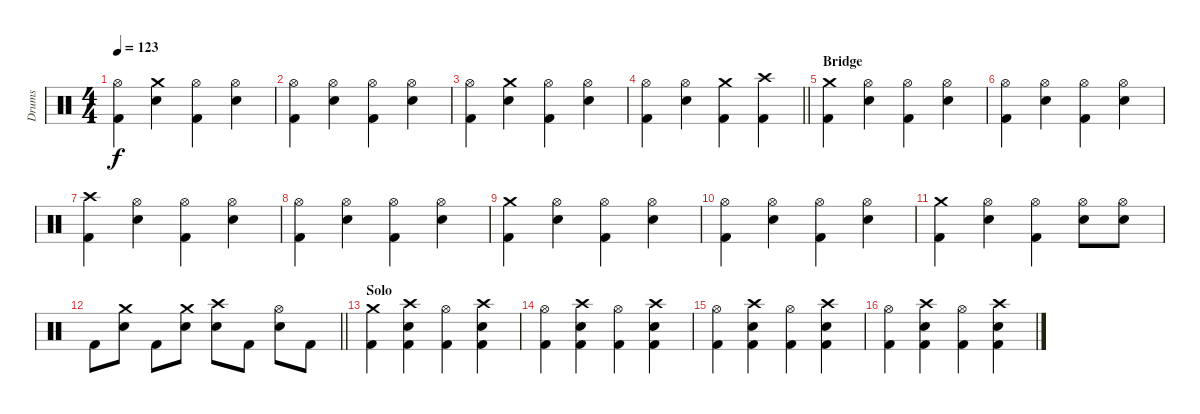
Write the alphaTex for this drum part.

\track ("Drums" "Drums") {instrument percussion}
\staff {score}
\articulation defaults
\ts (4 4)
\tempo 123
\clef neutral
\ks c
("Hi-Hat (open)" "Kick (hit) 2").4{dy f} ("Crash medium (hit)" "Electric Snare (hit)").4 ("Hi-Hat (open)" "Kick (hit) 2").4 ("Hi-Hat (open)" "Electric Snare (hit)").4 |
("Hi-Hat (open)" "Kick (hit) 2").4 ("Hi-Hat (open)" "Electric Snare (hit)").4 ("Hi-Hat (open)" "Kick (hit) 2").4 ("Hi-Hat (open)" "Electric Snare (hit)").4 |
("Hi-Hat (open)" "Kick (hit) 2").4 ("Crash medium (hit)" "Electric Snare (hit)").4 ("Hi-Hat (open)" "Kick (hit) 2").4 ("Hi-Hat (open)" "Electric Snare (hit)").4 |
\barLineRight lightlight
("Hi-Hat (open)" "Kick (hit) 2").4 ("Hi-Hat (open)" "Electric Snare (hit)").4 ("Crash medium (hit)" "Kick (hit) 2").4 ("Crash high (hit)" "Kick (hit) 2").4 |
\section ("" "Bridge")
("Crash medium (hit)" "Kick (hit) 2").4 ("Hi-Hat (open)" "Electric Snare (hit)").4 ("Hi-Hat (open)" "Kick (hit) 2").4 ("Hi-Hat (open)" "Electric Snare (hit)").4 |
("Hi-Hat (open)" "Kick (hit) 2").4 ("Hi-Hat (open)" "Electric Snare (hit)").4 ("Hi-Hat (open)" "Kick (hit) 2").4 ("Hi-Hat (open)" "Electric Snare (hit)").4 |
("Crash high (hit)" "Kick (hit) 2").4 ("Hi-Hat (open)" "Electric Snare (hit)").4 ("Hi-Hat (open)" "Kick (hit) 2").4 ("Hi-Hat (open)" "Electric Snare (hit)").4 |
("Hi-Hat (open)" "Kick (hit) 2").4 ("Hi-Hat (open)" "Electric Snare (hit)").4 ("Hi-Hat (open)" "Kick (hit) 2").4 ("Hi-Hat (open)" "Electric Snare (hit)").4 |
("Crash medium (hit)" "Kick (hit) 2").4 ("Hi-Hat (open)" "Electric Snare (hit)").4 ("Hi-Hat (open)" "Kick (hit) 2").4 ("Hi-Hat (open)" "Electric Snare (hit)").4 |
("Hi-Hat (open)" "Kick (hit) 2").4 ("Hi-Hat (open)" "Electric Snare (hit)").4 ("Hi-Hat (open)" "Kick (hit) 2").4 ("Hi-Hat (open)" "Electric Snare (hit)").4 |
("Crash medium (hit)" "Kick (hit) 2").4 ("Hi-Hat (open)" "Electric Snare (hit)").4 ("Hi-Hat (open)" "Kick (hit) 2").4 ("Hi-Hat (open)" "Electric Snare (hit)").8 ("Hi-Hat (open)" "Electric Snare (hit)").8 |
\barLineRight lightlight "Kick (hit) 2".8
("Crash medium (hit)" "Electric Snare (hit)").8 "Kick (hit) 2".8 ("Crash medium (hit)" "Electric Snare (hit)").8 ("Crash high (hit)" "Electric Snare (hit)").8 "Kick (hit) 2".8 ("Hi-Hat (open)" "Electric Snare (hit)").8 "Kick (hit) 2".8 |
\section ("" "Solo")
("Crash medium (hit)" "Kick (hit) 2").4 ("Crash high (hit)" "Electric Snare (hit)" "Kick (hit) 2").4 ("Hi-Hat (open)" "Kick (hit) 2").4 ("Crash high (hit)" "Electric Snare (hit)" "Kick (hit) 2").4 |
("Hi-Hat (open)" "Kick (hit) 2").4 ("Crash high (hit)" "Electric Snare (hit)" "Kick (hit) 2").4 ("Hi-Hat (open)" "Kick (hit) 2").4 ("Crash high (hit)" "Electric Snare (hit)" "Kick (hit) 2").4 |
("Hi-Hat (open)" "Kick (hit) 2").4 ("Crash high (hit)" "Electric Snare (hit)" "Kick (hit) 2").4 ("Hi-Hat (open)" "Kick (hit) 2").4 ("Crash high (hit)" "Electric Snare (hit)" "Kick (hit) 2").4 |
("Hi-Hat (open)" "Kick (hit) 2").4 ("Crash high (hit)" "Electric Snare (hit)" "Kick (hit) 2").4 ("Hi-Hat (open)" "Kick (hit) 2").4 ("Crash high (hit)" "Electric Snare (hit)" "Kick (hit) 2").4
